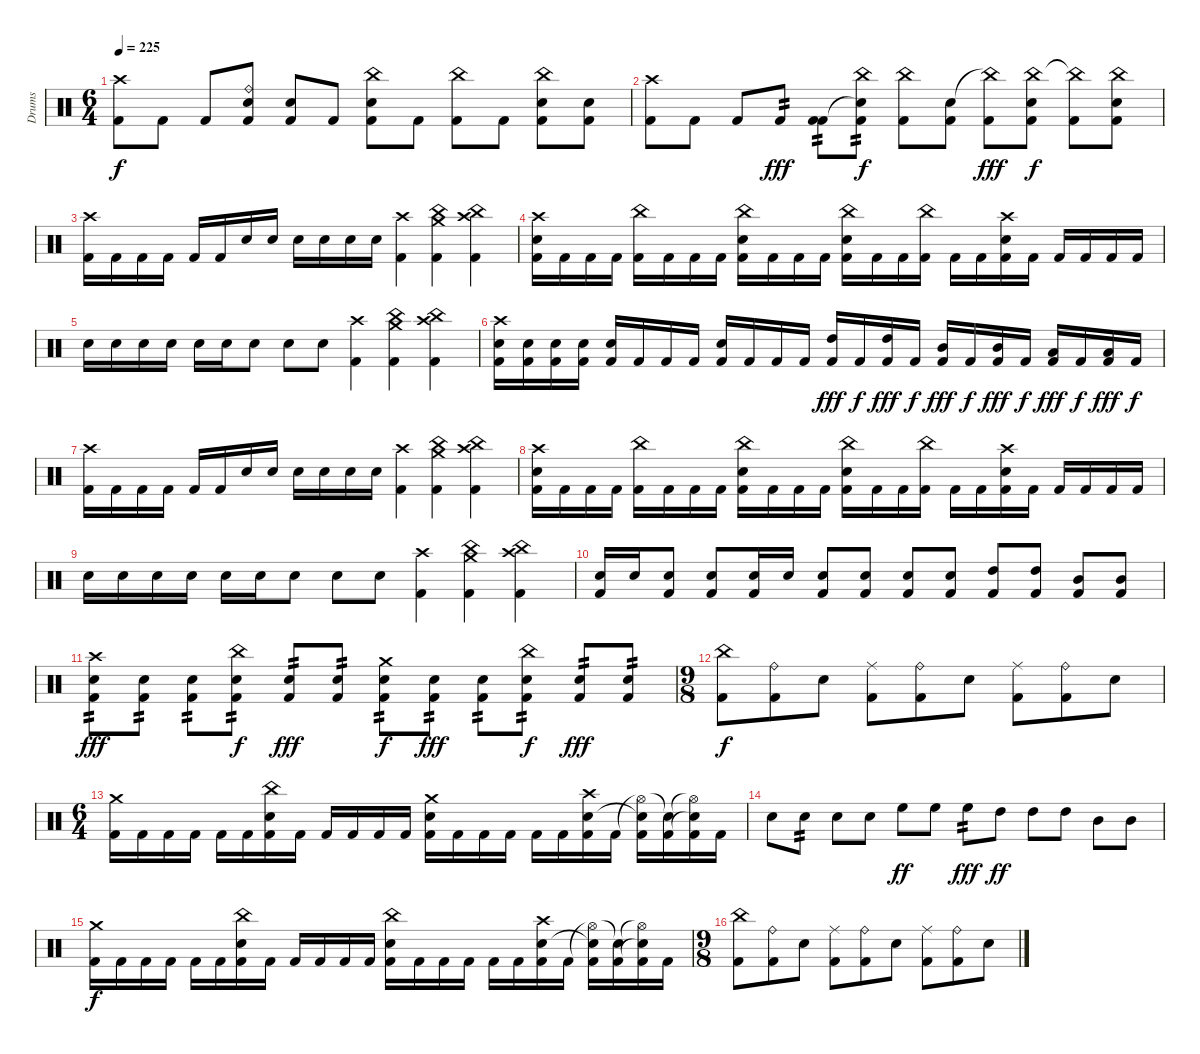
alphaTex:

\track ("Drums" "Drums") {instrument percussion}
\staff {score}
\articulation defaults
\ts (6 4)
\tempo 225
\clef neutral
\ks c
("Crash high (hit)" "Kick (hit) 2").8{dy f} "Kick (hit) 2".8 "Kick (hit) 2".8 ("Ride (bell)" "Snare (hit)" "Kick (hit) 2").8 ("Snare (hit) 2" "Kick (hit) 2").8 "Kick (hit) 2".8 ("China (hit)" "Snare (hit) 2" "Kick (hit) 2").8 "Kick (hit) 2".8 ("China (hit)" "Kick (hit) 2").8 "Kick (hit) 2".8 ("China (hit)" "Snare (hit) 2" "Kick (hit) 2").8 ("Snare (hit) 2" "Kick (hit) 2").8 |
("Crash high (hit)" "Kick (hit) 2").8 "Kick (hit) 2".8 "Kick (hit) 2".8 "Kick (hit) 2".8{tp 2 dy fff} ("Kick (hit) 2" "Kick (hit) 2").8{tp 2} ("China (hit)" "Snare (hit) 2"{t} "Kick (hit) 2").8{tp 2 dy f} ("China (hit)" "Kick (hit) 2").8 ("Snare (hit) 2" "Kick (hit) 2").8 ("China (hit)"{t} "Kick (hit) 2").8{dy fff} ("China (hit)" "Snare (hit) 2" "Kick (hit) 2").8{dy f} ("China (hit)"{t} "Kick (hit) 2").8 ("China (hit)" "Snare (hit) 2" "Kick (hit) 2").8 |
("Crash high (hit)" "Kick (hit) 2").16 "Kick (hit) 2".16 "Kick (hit) 2".16 "Kick (hit) 2".16 "Kick (hit) 2".16 "Kick (hit) 2".16 "Snare (hit) 2".16 "Snare (hit) 2".16 "Snare (hit) 2".16 "Snare (hit) 2".16 "Snare (hit) 2".16 "Snare (hit) 2".16 ("Crash high (hit)" "Kick (hit) 2").4 ("Crash medium (hit)" "China (hit)" "Kick (hit) 2").4 ("China (hit)" "Crash high (hit)" "Kick (hit) 2").4 |
("Crash high (hit)" "Snare (hit) 2" "Kick (hit) 2").16 "Kick (hit) 2".16 "Kick (hit) 2".16 "Kick (hit) 2".16 ("China (hit)" "Kick (hit) 2").16 "Kick (hit) 2".16 "Kick (hit) 2".16 "Kick (hit) 2".16 ("China (hit)" "Snare (hit) 2" "Kick (hit) 2").16 "Kick (hit) 2".16 "Kick (hit) 2".16 "Kick (hit) 2".16 ("China (hit)" "Snare (hit) 2" "Kick (hit) 2").16 "Kick (hit) 2".16 "Kick (hit) 2".16 ("China (hit)" "Kick (hit) 2").16 "Kick (hit) 2".16 "Kick (hit) 2".16 ("Crash high (hit)" "Snare (hit) 2" "Kick (hit) 2").16 "Kick (hit) 2".16 "Kick (hit) 2".16 "Kick (hit) 2".16 "Kick (hit) 2".16 "Kick (hit) 2".16 |
"Snare (hit) 2".16 "Snare (hit) 2".16 "Snare (hit) 2".16 "Snare (hit) 2".16 "Snare (hit) 2".16 "Snare (hit) 2".16 "Snare (hit) 2".8 "Snare (hit) 2".8 "Snare (hit) 2".8 ("Crash high (hit)" "Kick (hit) 2").4 ("Crash medium (hit)" "China (hit)" "Kick (hit) 2").4 ("China (hit)" "Crash high (hit)" "Kick (hit) 2").4 |
("Crash high (hit)" "Snare (hit) 2" "Kick (hit) 2").16 ("Snare (hit) 2" "Kick (hit) 2").16 ("Snare (hit) 2" "Kick (hit) 2").16 ("Snare (hit) 2" "Kick (hit) 2").16 ("Snare (hit) 2" "Kick (hit) 2").16 "Kick (hit) 2".16 "Kick (hit) 2".16 "Kick (hit) 2".16 ("Snare (hit) 2" "Kick (hit) 2").16 "Kick (hit) 2".16 "Kick (hit) 2".16 "Kick (hit) 2".16 ("High Tom (hit)" "Kick (hit) 2").16{dy fff} "Kick (hit) 2".16{dy f} ("High Tom (hit)" "Kick (hit) 2").16{dy fff} "Kick (hit) 2".16{dy f} ("Mid Tom (hit)" "Kick (hit) 2").16{dy fff} "Kick (hit) 2".16{dy f} ("Mid Tom (hit)" "Kick (hit) 2").16{dy fff} "Kick (hit) 2".16{dy f} ("Low Tom (hit)" "Kick (hit) 2").16{dy fff} "Kick (hit) 2".16{dy f} ("Low Tom (hit)" "Kick (hit) 2").16{dy fff} "Kick (hit) 2".16{dy f} |
("Crash high (hit)" "Kick (hit) 2").16 "Kick (hit) 2".16 "Kick (hit) 2".16 "Kick (hit) 2".16 "Kick (hit) 2".16 "Kick (hit) 2".16 "Snare (hit) 2".16 "Snare (hit) 2".16 "Snare (hit) 2".16 "Snare (hit) 2".16 "Snare (hit) 2".16 "Snare (hit) 2".16 ("Crash high (hit)" "Kick (hit) 2").4 ("Crash medium (hit)" "China (hit)" "Kick (hit) 2").4 ("China (hit)" "Crash high (hit)" "Kick (hit) 2").4 |
("Crash high (hit)" "Snare (hit) 2" "Kick (hit) 2").16 "Kick (hit) 2".16 "Kick (hit) 2".16 "Kick (hit) 2".16 ("China (hit)" "Kick (hit) 2").16 "Kick (hit) 2".16 "Kick (hit) 2".16 "Kick (hit) 2".16 ("China (hit)" "Snare (hit) 2" "Kick (hit) 2").16 "Kick (hit) 2".16 "Kick (hit) 2".16 "Kick (hit) 2".16 ("China (hit)" "Snare (hit) 2" "Kick (hit) 2").16 "Kick (hit) 2".16 "Kick (hit) 2".16 ("China (hit)" "Kick (hit) 2").16 "Kick (hit) 2".16 "Kick (hit) 2".16 ("Crash high (hit)" "Snare (hit) 2" "Kick (hit) 2").16 "Kick (hit) 2".16 "Kick (hit) 2".16 "Kick (hit) 2".16 "Kick (hit) 2".16 "Kick (hit) 2".16 |
"Snare (hit) 2".16 "Snare (hit) 2".16 "Snare (hit) 2".16 "Snare (hit) 2".16 "Snare (hit) 2".16 "Snare (hit) 2".16 "Snare (hit) 2".8 "Snare (hit) 2".8 "Snare (hit) 2".8 ("Crash high (hit)" "Kick (hit) 2").4 ("Crash medium (hit)" "China (hit)" "Kick (hit) 2").4 ("China (hit)" "Crash high (hit)" "Kick (hit) 2").4 |
("Snare (hit) 2" "Kick (hit) 2").16 "Snare (hit) 2".16 ("Snare (hit) 2" "Kick (hit) 2").8 ("Snare (hit) 2" "Kick (hit) 2").8 ("Snare (hit) 2" "Kick (hit) 2").16 "Snare (hit) 2".16 ("Snare (hit) 2" "Kick (hit) 2").8 ("Snare (hit) 2" "Kick (hit) 2").8 ("Snare (hit) 2" "Kick (hit) 2").8 ("Snare (hit) 2" "Kick (hit) 2").8 ("High Tom (hit)" "Kick (hit) 2").8 ("High Tom (hit)" "Kick (hit) 2").8 ("Mid Tom (hit)" "Kick (hit) 2").8 ("Mid Tom (hit)" "Kick (hit) 2").8 |
("Crash high (hit)" "Snare (hit) 2" "Kick (hit) 2").8{tp 2 dy fff} ("Snare (hit) 2" "Kick (hit) 2").8{tp 2} ("Snare (hit) 2" "Kick (hit) 2").8{tp 2} ("China (hit)" "Snare (hit) 2" "Kick (hit) 2").8{tp 2 dy f} ("Snare (hit) 2" "Kick (hit) 2").8{tp 2 dy fff} ("Snare (hit) 2" "Kick (hit) 2").8{tp 2} ("Crash medium (hit)" "Snare (hit) 2" "Kick (hit) 2").8{tp 2 dy f} ("Snare (hit) 2" "Kick (hit) 2").8{tp 2 dy fff} ("Snare (hit) 2" "Kick (hit) 2").8{tp 2} ("China (hit)" "Snare (hit) 2" "Kick (hit) 2").8{tp 2 dy f} ("Snare (hit) 2" "Kick (hit) 2").8{tp 2 dy fff} ("Snare (hit) 2" "Kick (hit) 2").8{tp 2} |
\ts (9 8)
("China (hit)" "Kick (hit) 2").8{dy f} ("Ride (bell)" "Kick (hit) 2").8 "Snare (hit) 2".8 ("Ride (middle)" "Kick (hit) 2").8 ("Ride (bell)" "Kick (hit) 2").8 "Snare (hit) 2".8 ("Ride (middle)" "Kick (hit) 2").8 ("Ride (bell)" "Kick (hit) 2").8 "Snare (hit) 2".8 |
\ts (6 4)
("Crash medium (hit)" "Kick (hit) 2").16 "Kick (hit) 2".16 "Kick (hit) 2".16 "Kick (hit) 2".16 "Kick (hit) 2".16 "Kick (hit) 2".16 ("China (hit)" "Snare (hit) 2" "Kick (hit) 2").16 "Kick (hit) 2".16 "Kick (hit) 2".16 "Kick (hit) 2".16 "Kick (hit) 2".16 "Kick (hit) 2".16 ("Crash medium (hit)" "Snare (hit) 2" "Kick (hit) 2").16 "Kick (hit) 2".16 "Kick (hit) 2".16 "Kick (hit) 2".16 "Kick (hit) 2".16 "Kick (hit) 2".16 ("Crash high (hit)" "Snare (hit) 2" "Kick (hit) 2").16 "Kick (hit) 2".16 ("Hi-Hat (open)"{t} "Snare (hit) 2"{t} "Kick (hit) 2").16 ("Snare (hit)"{t} "Kick (hit) 2").16 ("Hi-Hat (open)"{t} "Snare (hit) 2"{t} "Kick (hit) 2").16 "Kick (hit) 2".16 |
"Snare (hit) 2".8 "Snare (hit) 2".8{tp 2} "Snare (hit) 2".8 "Snare (hit) 2".8 "High Floor Tom (hit)".8{dy ff} "High Floor Tom (hit)".8 "High Floor Tom (hit)".8{tp 2 dy fff} "High Tom (hit)".8{dy ff} "High Tom (hit)".8 "High Tom (hit)".8 "Mid Tom (hit)".8 "Mid Tom (hit)".8 |
("Crash medium (hit)" "Kick (hit) 2").16{dy f} "Kick (hit) 2".16 "Kick (hit) 2".16 "Kick (hit) 2".16 "Kick (hit) 2".16 "Kick (hit) 2".16 ("China (hit)" "Snare (hit) 2" "Kick (hit) 2").16 "Kick (hit) 2".16 "Kick (hit) 2".16 "Kick (hit) 2".16 "Kick (hit) 2".16 "Kick (hit) 2".16 ("China (hit)" "Snare (hit) 2" "Kick (hit) 2").16 "Kick (hit) 2".16 "Kick (hit) 2".16 "Kick (hit) 2".16 "Kick (hit) 2".16 "Kick (hit) 2".16 ("Crash high (hit)" "Snare (hit) 2" "Kick (hit) 2").16 "Kick (hit) 2".16 ("Hi-Hat (open)"{t} "Snare (hit) 2"{t} "Kick (hit) 2").16 ("Snare (hit)"{t} "Kick (hit) 2").16 ("Hi-Hat (open)"{t} "Snare (hit) 2"{t} "Kick (hit) 2").16 "Kick (hit) 2".16 |
\ts (9 8)
("China (hit)" "Kick (hit) 2").8 ("Ride (bell)" "Kick (hit) 2").8 "Snare (hit) 2".8 ("Ride (middle)" "Kick (hit) 2").8 ("Ride (bell)" "Kick (hit) 2").8 "Snare (hit) 2".8 ("Ride (middle)" "Kick (hit) 2").8 ("Ride (bell)" "Kick (hit) 2").8 "Snare (hit) 2".8
